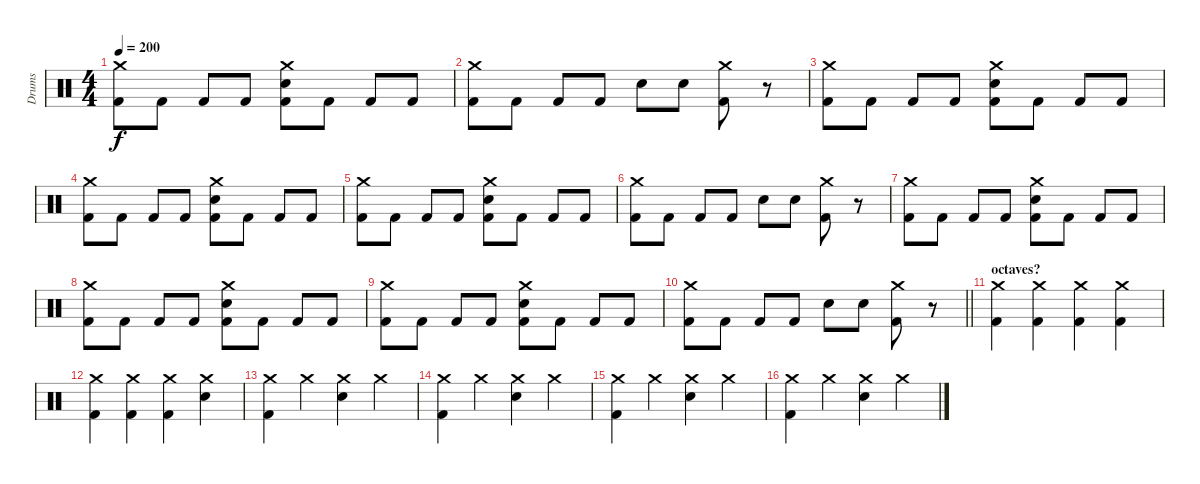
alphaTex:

\track ("Drums" "Drums") {instrument percussion}
\staff {score}
\articulation defaults
\ts (4 4)
\tempo 200
\clef neutral
\ks c
("Crash medium (hit)" "Kick (hit) 2").8{dy f} "Kick (hit) 2".8 "Kick (hit) 2".8 "Kick (hit) 2".8 ("Crash medium (hit)" "Snare (hit) 2" "Kick (hit) 2").8 "Kick (hit) 2".8 "Kick (hit) 2".8 "Kick (hit) 2".8 |
("Crash medium (hit)" "Kick (hit) 2").8 "Kick (hit) 2".8 "Kick (hit) 2".8 "Kick (hit) 2".8 "Snare (hit) 2".8 "Snare (hit) 2".8 ("Crash medium (hit)" "Kick (hit) 2").8 r.8 |
("Crash medium (hit)" "Kick (hit) 2").8 "Kick (hit) 2".8 "Kick (hit) 2".8 "Kick (hit) 2".8 ("Crash medium (hit)" "Snare (hit) 2" "Kick (hit) 2").8 "Kick (hit) 2".8 "Kick (hit) 2".8 "Kick (hit) 2".8 |
("Crash medium (hit)" "Kick (hit) 2").8 "Kick (hit) 2".8 "Kick (hit) 2".8 "Kick (hit) 2".8 ("Crash medium (hit)" "Snare (hit) 2" "Kick (hit) 2").8 "Kick (hit) 2".8 "Kick (hit) 2".8 "Kick (hit) 2".8 |
("Crash medium (hit)" "Kick (hit) 2").8 "Kick (hit) 2".8 "Kick (hit) 2".8 "Kick (hit) 2".8 ("Crash medium (hit)" "Snare (hit) 2" "Kick (hit) 2").8 "Kick (hit) 2".8 "Kick (hit) 2".8 "Kick (hit) 2".8 |
("Crash medium (hit)" "Kick (hit) 2").8 "Kick (hit) 2".8 "Kick (hit) 2".8 "Kick (hit) 2".8 "Snare (hit) 2".8 "Snare (hit) 2".8 ("Crash medium (hit)" "Kick (hit) 2").8 r.8 |
("Crash medium (hit)" "Kick (hit) 2").8 "Kick (hit) 2".8 "Kick (hit) 2".8 "Kick (hit) 2".8 ("Crash medium (hit)" "Snare (hit) 2" "Kick (hit) 2").8 "Kick (hit) 2".8 "Kick (hit) 2".8 "Kick (hit) 2".8 |
("Crash medium (hit)" "Kick (hit) 2").8 "Kick (hit) 2".8 "Kick (hit) 2".8 "Kick (hit) 2".8 ("Crash medium (hit)" "Snare (hit) 2" "Kick (hit) 2").8 "Kick (hit) 2".8 "Kick (hit) 2".8 "Kick (hit) 2".8 |
("Crash medium (hit)" "Kick (hit) 2").8 "Kick (hit) 2".8 "Kick (hit) 2".8 "Kick (hit) 2".8 ("Crash medium (hit)" "Snare (hit) 2" "Kick (hit) 2").8 "Kick (hit) 2".8 "Kick (hit) 2".8 "Kick (hit) 2".8 |
\barLineRight lightlight
("Crash medium (hit)" "Kick (hit) 2").8 "Kick (hit) 2".8 "Kick (hit) 2".8 "Kick (hit) 2".8 "Snare (hit) 2".8 "Snare (hit) 2".8 ("Crash medium (hit)" "Kick (hit) 2").8 r.8 |
\section ("" "octaves?")
("Crash medium (hit)" "Kick (hit) 2").4 ("Crash medium (hit)" "Kick (hit) 2").4 ("Crash medium (hit)" "Kick (hit) 2").4 ("Crash medium (hit)" "Kick (hit) 2").4 |
("Crash medium (hit)" "Kick (hit) 2").4 ("Crash medium (hit)" "Kick (hit) 2").4 ("Crash medium (hit)" "Kick (hit) 2").4 ("Crash medium (hit)" "Snare (hit) 2").4 |
("Crash medium (hit)" "Kick (hit) 2").4 "Crash medium (hit)".4 ("Crash medium (hit)" "Snare (hit) 2").4 "Crash medium (hit)".4 |
("Crash medium (hit)" "Kick (hit) 2").4 "Crash medium (hit)".4 ("Crash medium (hit)" "Snare (hit) 2").4 "Crash medium (hit)".4 |
("Crash medium (hit)" "Kick (hit) 2").4 "Crash medium (hit)".4 ("Crash medium (hit)" "Snare (hit) 2").4 "Crash medium (hit)".4 |
("Crash medium (hit)" "Kick (hit) 2").4 "Crash medium (hit)".4 ("Crash medium (hit)" "Snare (hit) 2").4 "Crash medium (hit)".4
